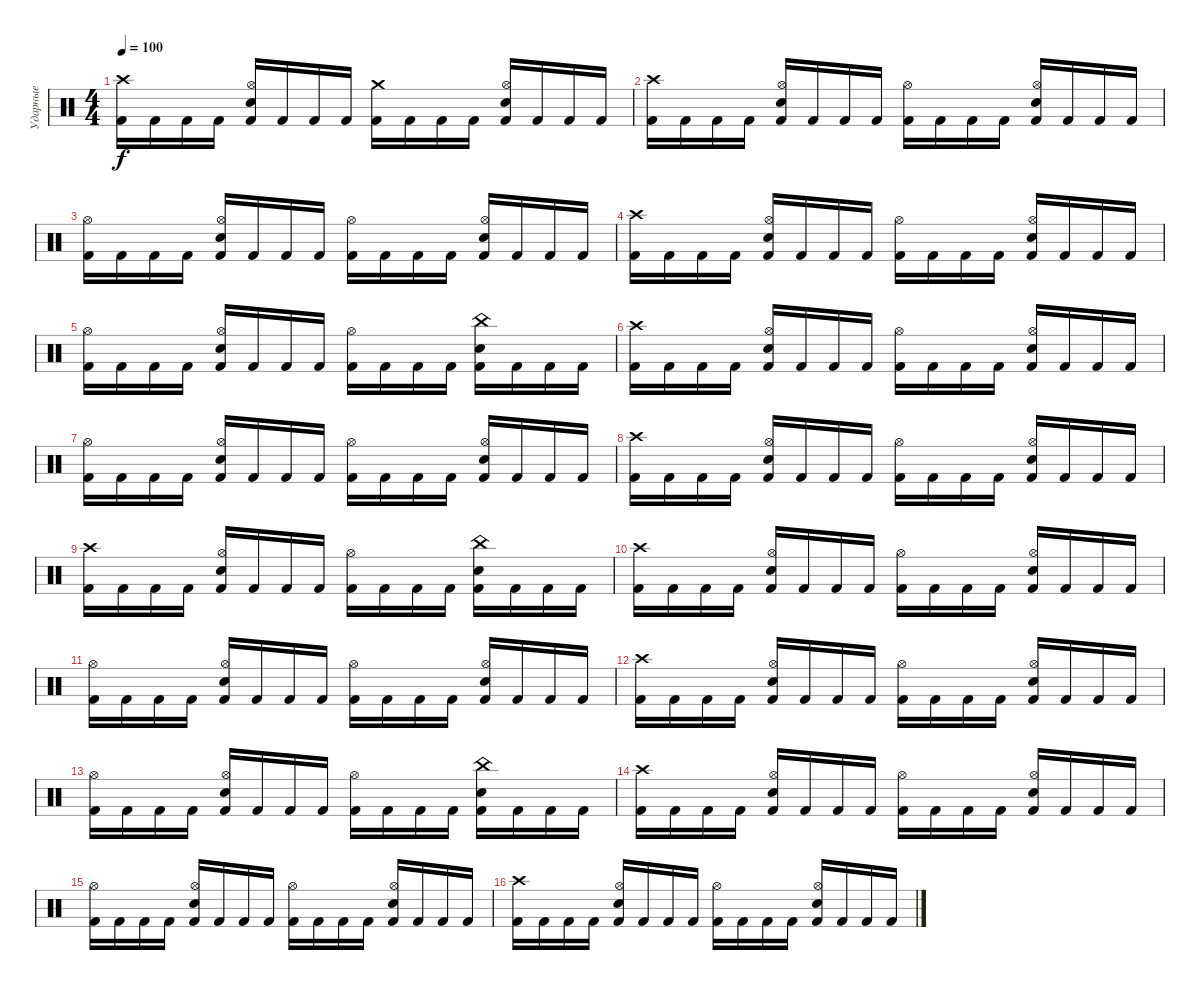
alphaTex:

\track ("Ударные" "Ударные") {instrument percussion}
\staff {score}
\articulation defaults
\ts (4 4)
\tempo 100
\clef neutral
\ks c
("Crash high (hit)" "Kick (hit) 2").16{dy f} "Kick (hit) 2".16 "Kick (hit) 2".16 "Kick (hit) 2".16 ("Hi-Hat (open)" "Electric Snare (hit)" "Kick (hit) 2").16 "Kick (hit) 2".16 "Kick (hit) 2".16 "Kick (hit) 2".16 ("Crash medium (hit)" "Kick (hit) 2").16 "Kick (hit) 2".16 "Kick (hit) 2".16 "Kick (hit) 2".16 ("Hi-Hat (open)" "Electric Snare (hit)" "Kick (hit) 2").16 "Kick (hit) 2".16 "Kick (hit) 2".16 "Kick (hit) 2".16 |
("Crash high (hit)" "Kick (hit) 2").16 "Kick (hit) 2".16 "Kick (hit) 2".16 "Kick (hit) 2".16 ("Hi-Hat (open)" "Electric Snare (hit)" "Kick (hit) 2").16 "Kick (hit) 2".16 "Kick (hit) 2".16 "Kick (hit) 2".16 ("Hi-Hat (open)" "Kick (hit) 2").16 "Kick (hit) 2".16 "Kick (hit) 2".16 "Kick (hit) 2".16 ("Hi-Hat (open)" "Electric Snare (hit)" "Kick (hit) 2").16 "Kick (hit) 2".16 "Kick (hit) 2".16 "Kick (hit) 2".16 |
("Hi-Hat (open)" "Kick (hit) 2").16 "Kick (hit) 2".16 "Kick (hit) 2".16 "Kick (hit) 2".16 ("Hi-Hat (open)" "Electric Snare (hit)" "Kick (hit) 2").16 "Kick (hit) 2".16 "Kick (hit) 2".16 "Kick (hit) 2".16 ("Hi-Hat (open)" "Kick (hit) 2").16 "Kick (hit) 2".16 "Kick (hit) 2".16 "Kick (hit) 2".16 ("Hi-Hat (open)" "Electric Snare (hit)" "Kick (hit) 2").16 "Kick (hit) 2".16 "Kick (hit) 2".16 "Kick (hit) 2".16 |
("Crash high (hit)" "Kick (hit) 2").16 "Kick (hit) 2".16 "Kick (hit) 2".16 "Kick (hit) 2".16 ("Hi-Hat (open)" "Electric Snare (hit)" "Kick (hit) 2").16 "Kick (hit) 2".16 "Kick (hit) 2".16 "Kick (hit) 2".16 ("Hi-Hat (open)" "Kick (hit) 2").16 "Kick (hit) 2".16 "Kick (hit) 2".16 "Kick (hit) 2".16 ("Hi-Hat (open)" "Electric Snare (hit)" "Kick (hit) 2").16 "Kick (hit) 2".16 "Kick (hit) 2".16 "Kick (hit) 2".16 |
("Hi-Hat (open)" "Kick (hit) 2").16 "Kick (hit) 2".16 "Kick (hit) 2".16 "Kick (hit) 2".16 ("Hi-Hat (open)" "Electric Snare (hit)" "Kick (hit) 2").16 "Kick (hit) 2".16 "Kick (hit) 2".16 "Kick (hit) 2".16 ("Hi-Hat (open)" "Kick (hit) 2").16 "Kick (hit) 2".16 "Kick (hit) 2".16 "Kick (hit) 2".16 ("China (hit)" "Electric Snare (hit)" "Kick (hit) 2").16 "Kick (hit) 2".16 "Kick (hit) 2".16 "Kick (hit) 2".16 |
("Crash high (hit)" "Kick (hit) 2").16 "Kick (hit) 2".16 "Kick (hit) 2".16 "Kick (hit) 2".16 ("Hi-Hat (open)" "Electric Snare (hit)" "Kick (hit) 2").16 "Kick (hit) 2".16 "Kick (hit) 2".16 "Kick (hit) 2".16 ("Hi-Hat (open)" "Kick (hit) 2").16 "Kick (hit) 2".16 "Kick (hit) 2".16 "Kick (hit) 2".16 ("Hi-Hat (open)" "Electric Snare (hit)" "Kick (hit) 2").16 "Kick (hit) 2".16 "Kick (hit) 2".16 "Kick (hit) 2".16 |
("Hi-Hat (open)" "Kick (hit) 2").16 "Kick (hit) 2".16 "Kick (hit) 2".16 "Kick (hit) 2".16 ("Hi-Hat (open)" "Electric Snare (hit)" "Kick (hit) 2").16 "Kick (hit) 2".16 "Kick (hit) 2".16 "Kick (hit) 2".16 ("Hi-Hat (open)" "Kick (hit) 2").16 "Kick (hit) 2".16 "Kick (hit) 2".16 "Kick (hit) 2".16 ("Hi-Hat (open)" "Electric Snare (hit)" "Kick (hit) 2").16 "Kick (hit) 2".16 "Kick (hit) 2".16 "Kick (hit) 2".16 |
("Crash high (hit)" "Kick (hit) 2").16 "Kick (hit) 2".16 "Kick (hit) 2".16 "Kick (hit) 2".16 ("Hi-Hat (open)" "Electric Snare (hit)" "Kick (hit) 2").16 "Kick (hit) 2".16 "Kick (hit) 2".16 "Kick (hit) 2".16 ("Hi-Hat (open)" "Kick (hit) 2").16 "Kick (hit) 2".16 "Kick (hit) 2".16 "Kick (hit) 2".16 ("Hi-Hat (open)" "Electric Snare (hit)" "Kick (hit) 2").16 "Kick (hit) 2".16 "Kick (hit) 2".16 "Kick (hit) 2".16 |
("Crash high (hit)" "Kick (hit) 2").16 "Kick (hit) 2".16 "Kick (hit) 2".16 "Kick (hit) 2".16 ("Hi-Hat (open)" "Electric Snare (hit)" "Kick (hit) 2").16 "Kick (hit) 2".16 "Kick (hit) 2".16 "Kick (hit) 2".16 ("Hi-Hat (open)" "Kick (hit) 2").16 "Kick (hit) 2".16 "Kick (hit) 2".16 "Kick (hit) 2".16 ("China (hit)" "Electric Snare (hit)" "Kick (hit) 2").16 "Kick (hit) 2".16 "Kick (hit) 2".16 "Kick (hit) 2".16 |
("Crash high (hit)" "Kick (hit) 2").16 "Kick (hit) 2".16 "Kick (hit) 2".16 "Kick (hit) 2".16 ("Hi-Hat (open)" "Electric Snare (hit)" "Kick (hit) 2").16 "Kick (hit) 2".16 "Kick (hit) 2".16 "Kick (hit) 2".16 ("Hi-Hat (open)" "Kick (hit) 2").16 "Kick (hit) 2".16 "Kick (hit) 2".16 "Kick (hit) 2".16 ("Hi-Hat (open)" "Electric Snare (hit)" "Kick (hit) 2").16 "Kick (hit) 2".16 "Kick (hit) 2".16 "Kick (hit) 2".16 |
("Hi-Hat (open)" "Kick (hit) 2").16 "Kick (hit) 2".16 "Kick (hit) 2".16 "Kick (hit) 2".16 ("Hi-Hat (open)" "Electric Snare (hit)" "Kick (hit) 2").16 "Kick (hit) 2".16 "Kick (hit) 2".16 "Kick (hit) 2".16 ("Hi-Hat (open)" "Kick (hit) 2").16 "Kick (hit) 2".16 "Kick (hit) 2".16 "Kick (hit) 2".16 ("Hi-Hat (open)" "Electric Snare (hit)" "Kick (hit) 2").16 "Kick (hit) 2".16 "Kick (hit) 2".16 "Kick (hit) 2".16 |
("Crash high (hit)" "Kick (hit) 2").16 "Kick (hit) 2".16 "Kick (hit) 2".16 "Kick (hit) 2".16 ("Hi-Hat (open)" "Electric Snare (hit)" "Kick (hit) 2").16 "Kick (hit) 2".16 "Kick (hit) 2".16 "Kick (hit) 2".16 ("Hi-Hat (open)" "Kick (hit) 2").16 "Kick (hit) 2".16 "Kick (hit) 2".16 "Kick (hit) 2".16 ("Hi-Hat (open)" "Electric Snare (hit)" "Kick (hit) 2").16 "Kick (hit) 2".16 "Kick (hit) 2".16 "Kick (hit) 2".16 |
("Hi-Hat (open)" "Kick (hit) 2").16 "Kick (hit) 2".16 "Kick (hit) 2".16 "Kick (hit) 2".16 ("Hi-Hat (open)" "Electric Snare (hit)" "Kick (hit) 2").16 "Kick (hit) 2".16 "Kick (hit) 2".16 "Kick (hit) 2".16 ("Hi-Hat (open)" "Kick (hit) 2").16 "Kick (hit) 2".16 "Kick (hit) 2".16 "Kick (hit) 2".16 ("China (hit)" "Electric Snare (hit)" "Kick (hit) 2").16 "Kick (hit) 2".16 "Kick (hit) 2".16 "Kick (hit) 2".16 |
("Crash high (hit)" "Kick (hit) 2").16 "Kick (hit) 2".16 "Kick (hit) 2".16 "Kick (hit) 2".16 ("Hi-Hat (open)" "Electric Snare (hit)" "Kick (hit) 2").16 "Kick (hit) 2".16 "Kick (hit) 2".16 "Kick (hit) 2".16 ("Hi-Hat (open)" "Kick (hit) 2").16 "Kick (hit) 2".16 "Kick (hit) 2".16 "Kick (hit) 2".16 ("Hi-Hat (open)" "Electric Snare (hit)" "Kick (hit) 2").16 "Kick (hit) 2".16 "Kick (hit) 2".16 "Kick (hit) 2".16 |
("Hi-Hat (open)" "Kick (hit) 2").16 "Kick (hit) 2".16 "Kick (hit) 2".16 "Kick (hit) 2".16 ("Hi-Hat (open)" "Electric Snare (hit)" "Kick (hit) 2").16 "Kick (hit) 2".16 "Kick (hit) 2".16 "Kick (hit) 2".16 ("Hi-Hat (open)" "Kick (hit) 2").16 "Kick (hit) 2".16 "Kick (hit) 2".16 "Kick (hit) 2".16 ("Hi-Hat (open)" "Electric Snare (hit)" "Kick (hit) 2").16 "Kick (hit) 2".16 "Kick (hit) 2".16 "Kick (hit) 2".16 |
("Crash high (hit)" "Kick (hit) 2").16 "Kick (hit) 2".16 "Kick (hit) 2".16 "Kick (hit) 2".16 ("Hi-Hat (open)" "Electric Snare (hit)" "Kick (hit) 2").16 "Kick (hit) 2".16 "Kick (hit) 2".16 "Kick (hit) 2".16 ("Hi-Hat (open)" "Kick (hit) 2").16 "Kick (hit) 2".16 "Kick (hit) 2".16 "Kick (hit) 2".16 ("Hi-Hat (open)" "Electric Snare (hit)" "Kick (hit) 2").16 "Kick (hit) 2".16 "Kick (hit) 2".16 "Kick (hit) 2".16
